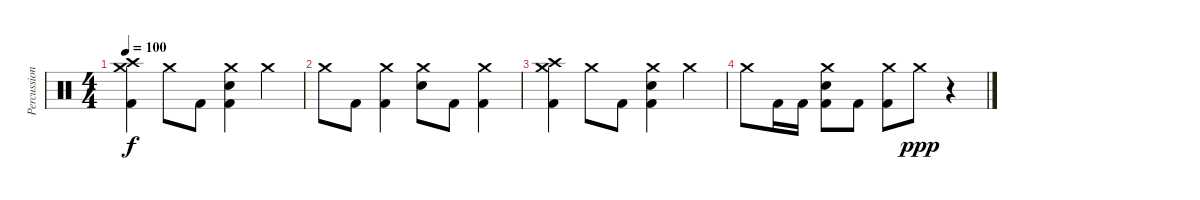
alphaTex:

\track ("Percussion" "Percussion") {instrument percussion}
\staff {score}
\articulation defaults
\ts (4 4)
\tempo 100
\clef neutral
\ks c
("Crash high (hit)" "Crash medium (hit)" "Kick (hit) 2").4{dy f} "Crash medium (hit)".8 "Kick (hit) 2".8 ("Crash medium (hit)" "Snare (hit) 2" "Kick (hit) 2").4 "Crash medium (hit)".4 |
"Crash medium (hit)".8 "Kick (hit) 2".8 ("Crash medium (hit)" "Kick (hit) 2").4 ("Crash medium (hit)" "Snare (hit) 2").8 "Kick (hit) 2".8 ("Crash medium (hit)" "Kick (hit) 2").4 |
("Crash high (hit)" "Crash medium (hit)" "Kick (hit) 2").4 "Crash medium (hit)".8 "Kick (hit) 2".8 ("Crash medium (hit)" "Snare (hit) 2" "Kick (hit) 2").4 "Crash medium (hit)".4 |
"Crash medium (hit)".8 "Kick (hit) 2".16 "Kick (hit) 2".16 ("Crash medium (hit)" "Snare (hit) 2" "Kick (hit) 2").8 "Kick (hit) 2".8 ("Crash medium (hit)" "Kick (hit) 2").8 "Crash medium (hit)".8{dy ppp} r.4
